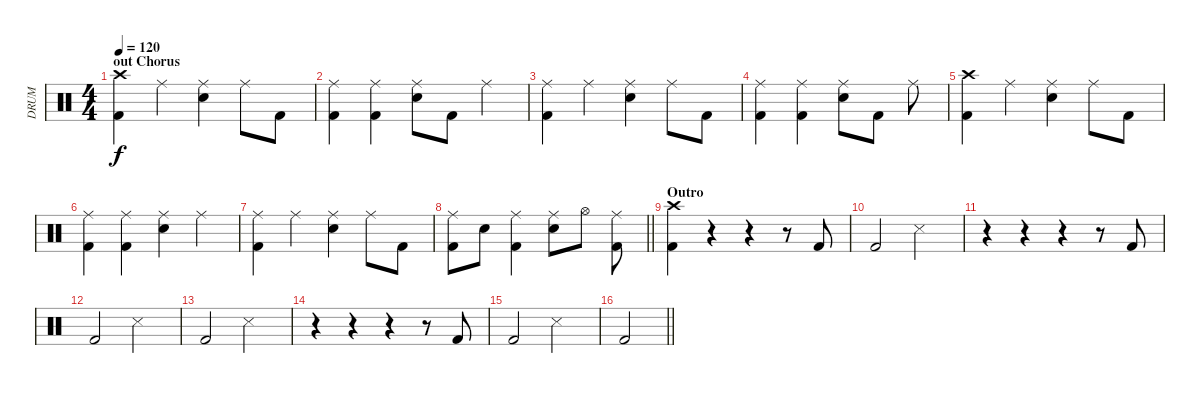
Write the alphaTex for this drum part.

\track ("DRUM" "DRUM") {instrument percussion}
\staff {score}
\articulation defaults
\ts (4 4)
\section ("" "out Chorus")
\tempo 120
\clef neutral
\ks c
("Crash high (hit)" "Kick (hit) 2").4{dy f} "Ride (middle)".4 ("Ride (middle)" "Electric Snare (hit)").4 "Ride (middle)".8 "Kick (hit) 2".8 |
("Ride (middle)" "Kick (hit) 2").4 ("Ride (middle)" "Kick (hit) 2").4 ("Ride (middle)" "Electric Snare (hit)").8 "Kick (hit) 2".8 "Ride (middle)".4 |
("Kick (hit) 2" "Ride (middle)").4 "Ride (middle)".4 ("Ride (middle)" "Electric Snare (hit)").4 "Ride (middle)".8 "Kick (hit) 2".8 |
("Ride (middle)" "Kick (hit) 2").4 ("Ride (middle)" "Kick (hit) 2").4 ("Ride (middle)" "Electric Snare (hit)").8 "Kick (hit) 2".8 "Ride (middle)".8 |
("Crash high (hit)" "Kick (hit) 2").4 "Ride (middle)".4 ("Ride (middle)" "Electric Snare (hit)").4 "Ride (middle)".8 "Kick (hit) 2".8 |
("Ride (middle)" "Kick (hit) 2").4 ("Ride (middle)" "Kick (hit) 2").4 ("Ride (middle)" "Electric Snare (hit)").4 "Ride (middle)".4 |
("Kick (hit) 2" "Ride (middle)").4 "Ride (middle)".4 ("Ride (middle)" "Electric Snare (hit)").4 "Ride (middle)".8 "Kick (hit) 2".8 |
\barLineRight lightlight
("Kick (hit) 2" "Ride (middle)").8 "Electric Snare (hit)".8 ("Kick (hit) 2" "Ride (middle)").4 ("Electric Snare (hit)" "Ride (middle)").8 "Hi-Hat (open)".8 ("Kick (hit) 2" "Ride (middle)").8 |
\section ("" "Outro")
("Kick (hit) 2" "Crash high (hit)").4 r.4 r.4 r.8 "Kick (hit) 2".8 |
"Kick (hit) 2".2 "Snare (side stick) 3".2 |
r.4 r.4 r.4 r.8 "Kick (hit) 2".8 |
"Kick (hit) 2".2 "Snare (side stick) 3".2 |
"Kick (hit) 2".2 "Snare (side stick) 3".2 |
r.4 r.4 r.4 r.8 "Kick (hit) 2".8 |
"Kick (hit) 2".2 "Snare (side stick) 3".2 |
\barLineRight lightlight "Kick (hit) 2".2
